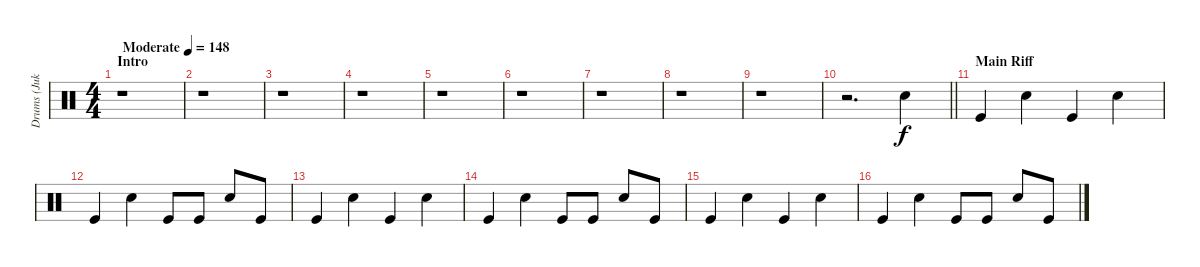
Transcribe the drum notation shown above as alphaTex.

\track ("Drums (Jukka)" "Drums (Juk") {instrument percussion}
\staff {score}
\articulation defaults
\ts (4 4)
\section ("" "Intro")
\tempo (148 "Moderate")
\clef neutral
\ks c
r.1{dy f} |
r.1 |
r.1 |
r.1 |
r.1 |
r.1 |
r.1 |
r.1 |
r.1 |
\barLineRight lightlight
r.2{d} "Snare (hit) 2".4 |
\section ("" "Main Riff")
"Kick (hit)".4 "Snare (hit) 2".4 "Kick (hit)".4 "Snare (hit) 2".4 |
"Kick (hit)".4 "Snare (hit) 2".4 "Kick (hit)".8 "Kick (hit)".8 "Snare (hit) 2".8 "Kick (hit)".8 |
"Kick (hit)".4 "Snare (hit) 2".4 "Kick (hit)".4 "Snare (hit) 2".4 |
"Kick (hit)".4 "Snare (hit) 2".4 "Kick (hit)".8 "Kick (hit)".8 "Snare (hit) 2".8 "Kick (hit)".8 |
"Kick (hit)".4 "Snare (hit) 2".4 "Kick (hit)".4 "Snare (hit) 2".4 |
"Kick (hit)".4 "Snare (hit) 2".4 "Kick (hit)".8 "Kick (hit)".8 "Snare (hit) 2".8 "Kick (hit)".8
